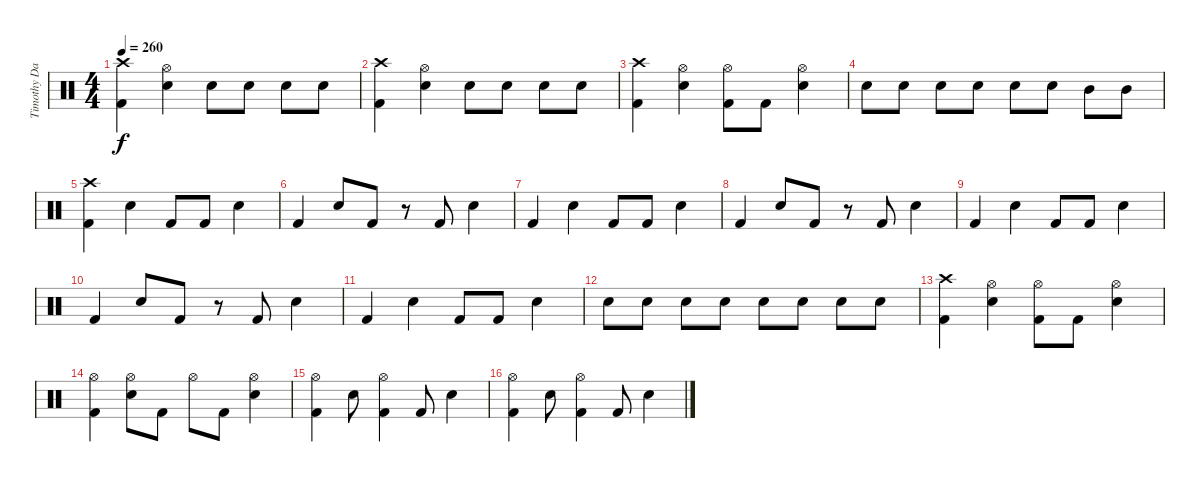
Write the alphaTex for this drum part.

\track ("Timothy David Bollinger" "Timothy Da") {instrument percussion}
\staff {score}
\articulation defaults
\ts (4 4)
\tempo 260
\clef neutral
\ks c
("Crash high (hit)" "Kick (hit) 2").4{dy f} ("Hi-Hat (open)" "Electric Snare (hit)").4 "Electric Snare (hit)".8 "Electric Snare (hit)".8 "Electric Snare (hit)".8 "Electric Snare (hit)".8 |
("Crash high (hit)" "Kick (hit) 2").4 ("Hi-Hat (open)" "Electric Snare (hit)").4 "Electric Snare (hit)".8 "Electric Snare (hit)".8 "Electric Snare (hit)".8 "Electric Snare (hit)".8 |
("Crash high (hit)" "Kick (hit) 2").4 ("Hi-Hat (open)" "Electric Snare (hit)").4 ("Hi-Hat (open)" "Kick (hit) 2").8 "Kick (hit) 2".8 ("Hi-Hat (open)" "Electric Snare (hit)").4 |
"Electric Snare (hit)".8 "Electric Snare (hit)".8 "Electric Snare (hit)".8 "Electric Snare (hit)".8 "Electric Snare (hit)".8 "Electric Snare (hit)".8 "Mid Tom (hit)".8 "Mid Tom (hit)".8 |
("Crash high (hit)" "Kick (hit) 2").4 "Electric Snare (hit)".4 "Kick (hit) 2".8 "Kick (hit) 2".8 "Electric Snare (hit)".4 |
"Kick (hit) 2".4 "Electric Snare (hit)".8 "Kick (hit) 2".8 r.8 "Kick (hit) 2".8 "Electric Snare (hit)".4 |
"Kick (hit) 2".4 "Electric Snare (hit)".4 "Kick (hit) 2".8 "Kick (hit) 2".8 "Electric Snare (hit)".4 |
"Kick (hit) 2".4 "Electric Snare (hit)".8 "Kick (hit) 2".8 r.8 "Kick (hit) 2".8 "Electric Snare (hit)".4 |
"Kick (hit) 2".4 "Electric Snare (hit)".4 "Kick (hit) 2".8 "Kick (hit) 2".8 "Electric Snare (hit)".4 |
"Kick (hit) 2".4 "Electric Snare (hit)".8 "Kick (hit) 2".8 r.8 "Kick (hit) 2".8 "Electric Snare (hit)".4 |
"Kick (hit) 2".4 "Electric Snare (hit)".4 "Kick (hit) 2".8 "Kick (hit) 2".8 "Electric Snare (hit)".4 |
"Electric Snare (hit)".8 "Electric Snare (hit)".8 "Electric Snare (hit)".8 "Electric Snare (hit)".8 "Electric Snare (hit)".8 "Electric Snare (hit)".8 "Electric Snare (hit)".8 "Electric Snare (hit)".8 |
("Crash high (hit)" "Kick (hit) 2").4 ("Hi-Hat (open)" "Electric Snare (hit)").4 ("Hi-Hat (open)" "Kick (hit) 2").8 "Kick (hit) 2".8 ("Hi-Hat (open)" "Electric Snare (hit)").4 |
("Hi-Hat (open)" "Kick (hit) 2").4 ("Hi-Hat (open)" "Electric Snare (hit)").8 "Kick (hit) 2".8 "Hi-Hat (open)".8 "Kick (hit) 2".8 ("Hi-Hat (open)" "Electric Snare (hit)").4 |
("Hi-Hat (open)" "Kick (hit) 2").4 "Electric Snare (hit)".8 ("Hi-Hat (open)" "Kick (hit) 2").4 "Kick (hit) 2".8 "Electric Snare (hit)".4 |
("Hi-Hat (open)" "Kick (hit) 2").4 "Electric Snare (hit)".8 ("Hi-Hat (open)" "Kick (hit) 2").4 "Kick (hit) 2".8 "Electric Snare (hit)".4
